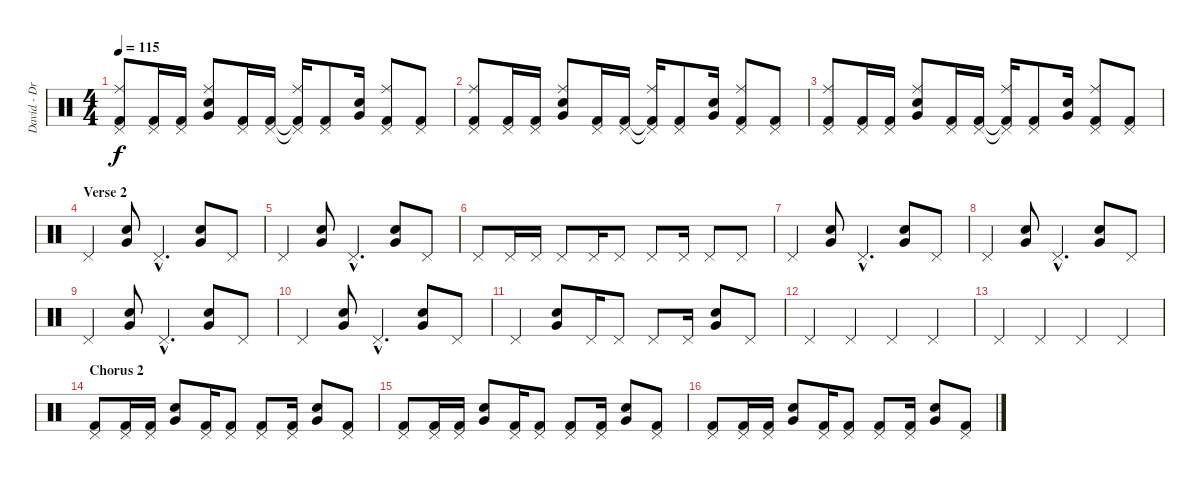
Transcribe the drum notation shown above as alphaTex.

\track ("David - Drums" "David - Dr") {instrument percussion}
\staff {score}
\articulation defaults
\ts (4 4)
\tempo 115
\clef neutral
\ks c
("Kick (hit) 2" "Pedal Hi-Hat (hit)" "Ride (middle)").8{dy f} ("Kick (hit) 2" "Pedal Hi-Hat (hit)").16 ("Kick (hit) 2" "Pedal Hi-Hat (hit)").16 ("Snare (hit) 2" "Very Low Tom (hit)" "Ride (middle)").8 ("Kick (hit) 2" "Pedal Hi-Hat (hit)").16 ("Kick (hit) 2" "Pedal Hi-Hat (hit)").16 ("Kick (hit) 2"{t} "Pedal Hi-Hat (hit)"{t} "Ride (middle)").16 ("Kick (hit) 2" "Pedal Hi-Hat (hit)").8 ("Snare (hit) 2" "Very Low Tom (hit)").16 ("Kick (hit) 2" "Pedal Hi-Hat (hit)" "Ride (middle)").8 ("Kick (hit) 2" "Pedal Hi-Hat (hit)").8 |
("Kick (hit) 2" "Pedal Hi-Hat (hit)" "Ride (middle)").8 ("Kick (hit) 2" "Pedal Hi-Hat (hit)").16 ("Kick (hit) 2" "Pedal Hi-Hat (hit)").16 ("Snare (hit) 2" "Very Low Tom (hit)" "Ride (middle)").8 ("Kick (hit) 2" "Pedal Hi-Hat (hit)").16 ("Kick (hit) 2" "Pedal Hi-Hat (hit)").16 ("Kick (hit) 2"{t} "Pedal Hi-Hat (hit)"{t} "Ride (middle)").16 ("Kick (hit) 2" "Pedal Hi-Hat (hit)").8 ("Snare (hit) 2" "Very Low Tom (hit)").16 ("Kick (hit) 2" "Pedal Hi-Hat (hit)" "Ride (middle)").8 ("Kick (hit) 2" "Pedal Hi-Hat (hit)").8 |
("Kick (hit) 2" "Pedal Hi-Hat (hit)" "Ride (middle)").8 ("Kick (hit) 2" "Pedal Hi-Hat (hit)").16 ("Kick (hit) 2" "Pedal Hi-Hat (hit)").16 ("Snare (hit) 2" "Very Low Tom (hit)" "Ride (middle)").8 ("Kick (hit) 2" "Pedal Hi-Hat (hit)").16 ("Kick (hit) 2" "Pedal Hi-Hat (hit)").16 ("Kick (hit) 2"{t} "Pedal Hi-Hat (hit)"{t} "Ride (middle)").16 ("Kick (hit) 2" "Pedal Hi-Hat (hit)").8 ("Snare (hit) 2" "Very Low Tom (hit)").16 ("Kick (hit) 2" "Pedal Hi-Hat (hit)" "Ride (middle)").8 ("Kick (hit) 2" "Pedal Hi-Hat (hit)").8 |
\section ("" "Verse 2")
"Pedal Hi-Hat (hit)".4 ("Snare (hit) 2" "Very Low Tom (hit)").8 "Pedal Hi-Hat (hit)"{hac}.4{d} ("Snare (hit) 2" "Very Low Tom (hit)").8 "Pedal Hi-Hat (hit)".8 |
"Pedal Hi-Hat (hit)".4 ("Snare (hit) 2" "Very Low Tom (hit)").8 "Pedal Hi-Hat (hit)"{hac}.4{d} ("Snare (hit) 2" "Very Low Tom (hit)").8 "Pedal Hi-Hat (hit)".8 |
"Pedal Hi-Hat (hit)".8 "Pedal Hi-Hat (hit)".16 "Pedal Hi-Hat (hit)".16 "Pedal Hi-Hat (hit)".8 "Pedal Hi-Hat (hit)".16 "Pedal Hi-Hat (hit)".8 "Pedal Hi-Hat (hit)".8 "Pedal Hi-Hat (hit)".16 "Pedal Hi-Hat (hit)".8 "Pedal Hi-Hat (hit)".8 |
"Pedal Hi-Hat (hit)".4 ("Snare (hit) 2" "Very Low Tom (hit)").8 "Pedal Hi-Hat (hit)"{hac}.4{d} ("Snare (hit) 2" "Very Low Tom (hit)").8 "Pedal Hi-Hat (hit)".8 |
"Pedal Hi-Hat (hit)".4 ("Snare (hit) 2" "Very Low Tom (hit)").8 "Pedal Hi-Hat (hit)"{hac}.4{d} ("Snare (hit) 2" "Very Low Tom (hit)").8 "Pedal Hi-Hat (hit)".8 |
"Pedal Hi-Hat (hit)".4 ("Snare (hit) 2" "Very Low Tom (hit)").8 "Pedal Hi-Hat (hit)"{hac}.4{d} ("Snare (hit) 2" "Very Low Tom (hit)").8 "Pedal Hi-Hat (hit)".8 |
"Pedal Hi-Hat (hit)".4 ("Snare (hit) 2" "Very Low Tom (hit)").8 "Pedal Hi-Hat (hit)"{hac}.4{d} ("Snare (hit) 2" "Very Low Tom (hit)").8 "Pedal Hi-Hat (hit)".8 |
"Pedal Hi-Hat (hit)".4 ("Snare (hit) 2" "Very Low Tom (hit)").8 "Pedal Hi-Hat (hit)".16 "Pedal Hi-Hat (hit)".8 "Pedal Hi-Hat (hit)".8 "Pedal Hi-Hat (hit)".16 ("Snare (hit) 2" "Very Low Tom (hit)").8 "Pedal Hi-Hat (hit)".8 |
"Pedal Hi-Hat (hit)".4 "Pedal Hi-Hat (hit)".4 "Pedal Hi-Hat (hit)".4 "Pedal Hi-Hat (hit)".4 |
"Pedal Hi-Hat (hit)".4 "Pedal Hi-Hat (hit)".4 "Pedal Hi-Hat (hit)".4 "Pedal Hi-Hat (hit)".4 |
\section ("" "Chorus 2")
("Kick (hit) 2" "Pedal Hi-Hat (hit)").8 ("Kick (hit) 2" "Pedal Hi-Hat (hit)").16 ("Kick (hit) 2" "Pedal Hi-Hat (hit)").16 ("Snare (hit) 2" "Very Low Tom (hit)").8 ("Kick (hit) 2" "Pedal Hi-Hat (hit)").16 ("Kick (hit) 2" "Pedal Hi-Hat (hit)").8 ("Kick (hit) 2" "Pedal Hi-Hat (hit)").8 ("Kick (hit) 2" "Pedal Hi-Hat (hit)").16 ("Snare (hit) 2" "Very Low Tom (hit)").8 ("Kick (hit) 2" "Pedal Hi-Hat (hit)").8 |
("Kick (hit) 2" "Pedal Hi-Hat (hit)").8 ("Kick (hit) 2" "Pedal Hi-Hat (hit)").16 ("Kick (hit) 2" "Pedal Hi-Hat (hit)").16 ("Snare (hit) 2" "Very Low Tom (hit)").8 ("Kick (hit) 2" "Pedal Hi-Hat (hit)").16 ("Kick (hit) 2" "Pedal Hi-Hat (hit)").8 ("Kick (hit) 2" "Pedal Hi-Hat (hit)").8 ("Kick (hit) 2" "Pedal Hi-Hat (hit)").16 ("Snare (hit) 2" "Very Low Tom (hit)").8 ("Kick (hit) 2" "Pedal Hi-Hat (hit)").8 |
("Kick (hit) 2" "Pedal Hi-Hat (hit)").8 ("Kick (hit) 2" "Pedal Hi-Hat (hit)").16 ("Kick (hit) 2" "Pedal Hi-Hat (hit)").16 ("Snare (hit) 2" "Very Low Tom (hit)").8 ("Kick (hit) 2" "Pedal Hi-Hat (hit)").16 ("Kick (hit) 2" "Pedal Hi-Hat (hit)").8 ("Kick (hit) 2" "Pedal Hi-Hat (hit)").8 ("Kick (hit) 2" "Pedal Hi-Hat (hit)").16 ("Snare (hit) 2" "Very Low Tom (hit)").8 ("Kick (hit) 2" "Pedal Hi-Hat (hit)").8
